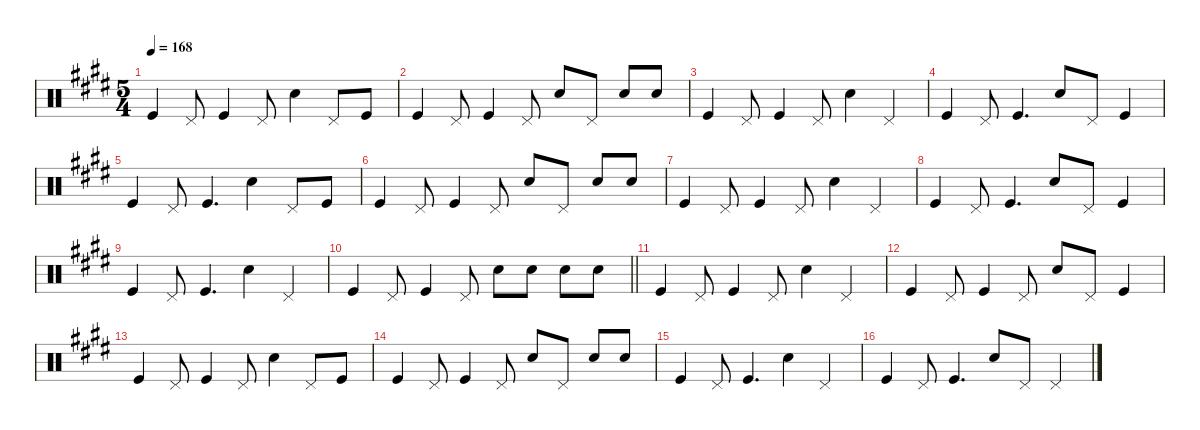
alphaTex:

\defaultSystemsLayout 4
\hideDynamics
\bracketExtendMode nobrackets
\singleTrackTrackNamePolicy hidden
\multiTrackTrackNamePolicy hidden
\firstSystemTrackNameMode fullname
\firstSystemTrackNameOrientation horizontal
\otherSystemsTrackNameOrientation horizontal
\track ("Percussion" "drm.") {instrument percussion}
\staff {score}
\articulation defaults
\ts (5 4)
\tempo 168
\clef neutral
\ks c#minor "Kick (hit)"{acc forcenatural}.4{dy f beam Up} "Pedal Hi-Hat (hit)"{acc forcenatural}.8{beam Up} "Kick (hit)"{acc forcenatural}.4{beam Up} "Pedal Hi-Hat (hit)"{acc forcenatural}.8{beam Up} "Snare (hit) 2"{acc forcenatural}.4{beam Down} "Pedal Hi-Hat (hit)"{acc forcenatural}.8{beam Up} "Kick (hit)"{acc forcenatural}.8{beam Up}
|
"Kick (hit)"{acc forcenatural}.4{beam Up} "Pedal Hi-Hat (hit)"{acc forcenatural}.8{beam Up} "Kick (hit)"{acc forcenatural}.4{beam Up} "Pedal Hi-Hat (hit)"{acc forcenatural}.8{beam Up} "Snare (hit) 2"{acc forcenatural}.8{beam Up} "Pedal Hi-Hat (hit)"{acc forcenatural}.8{beam Up} "Snare (hit) 2"{acc forcenatural}.8{beam Up} "Snare (hit) 2"{acc forcenatural}.8{beam Up} |
"Kick (hit)"{acc forcenatural}.4{beam Up} "Pedal Hi-Hat (hit)"{acc forcenatural}.8{beam Up} "Kick (hit)"{acc forcenatural}.4{beam Up} "Pedal Hi-Hat (hit)"{acc forcenatural}.8{beam Up} "Snare (hit) 2"{acc forcenatural}.4{beam Down} "Pedal Hi-Hat (hit)"{acc forcenatural}.4{beam Up} |
"Kick (hit)"{acc forcenatural}.4{beam Up} "Pedal Hi-Hat (hit)"{acc forcenatural}.8{beam Up} "Kick (hit)"{acc forcenatural}.4{d beam Up} "Snare (hit) 2"{acc forcenatural}.8{beam Up} "Pedal Hi-Hat (hit)"{acc forcenatural}.8{beam Up} "Kick (hit)"{acc forcenatural}.4{beam Up} |
"Kick (hit)"{acc forcenatural}.4{beam Up} "Pedal Hi-Hat (hit)"{acc forcenatural}.8{beam Up} "Kick (hit)"{acc forcenatural}.4{d beam Up} "Snare (hit) 2"{acc forcenatural}.4{beam Down} "Pedal Hi-Hat (hit)"{acc forcenatural}.8{beam Up} "Kick (hit)"{acc forcenatural}.8{beam Up} |
"Kick (hit)"{acc forcenatural}.4{beam Up} "Pedal Hi-Hat (hit)"{acc forcenatural}.8{beam Up} "Kick (hit)"{acc forcenatural}.4{beam Up} "Pedal Hi-Hat (hit)"{acc forcenatural}.8{beam Up} "Snare (hit) 2"{acc forcenatural}.8{beam Up} "Pedal Hi-Hat (hit)"{acc forcenatural}.8{beam Up} "Snare (hit) 2"{acc forcenatural}.8{beam Up} "Snare (hit) 2"{acc forcenatural}.8{beam Up} |
"Kick (hit)"{acc forcenatural}.4{beam Up} "Pedal Hi-Hat (hit)"{acc forcenatural}.8{beam Up} "Kick (hit)"{acc forcenatural}.4{beam Up} "Pedal Hi-Hat (hit)"{acc forcenatural}.8{beam Up} "Snare (hit) 2"{acc forcenatural}.4{beam Down} "Pedal Hi-Hat (hit)"{acc forcenatural}.4{beam Up} |
"Kick (hit)"{acc forcenatural}.4{beam Up} "Pedal Hi-Hat (hit)"{acc forcenatural}.8{beam Up} "Kick (hit)"{acc forcenatural}.4{d beam Up} "Snare (hit) 2"{acc forcenatural}.8{beam Up} "Pedal Hi-Hat (hit)"{acc forcenatural}.8{beam Up} "Kick (hit)"{acc forcenatural}.4{beam Up} |
"Kick (hit)"{acc forcenatural}.4{beam Up} "Pedal Hi-Hat (hit)"{acc forcenatural}.8{beam Up} "Kick (hit)"{acc forcenatural}.4{d beam Up} "Snare (hit) 2"{acc forcenatural}.4{beam Down} "Pedal Hi-Hat (hit)"{acc forcenatural}.4{beam Up} |
\barLineRight lightlight "Kick (hit)"{acc forcenatural}.4{beam Up} "Pedal Hi-Hat (hit)"{acc forcenatural}.8{beam Up} "Kick (hit)"{acc forcenatural}.4{beam Up} "Pedal Hi-Hat (hit)"{acc forcenatural}.8{beam Up} "Snare (hit) 2"{acc forcenatural}.8{beam Down} "Snare (hit) 2"{acc forcenatural}.8{beam Down} "Snare (hit) 2"{acc forcenatural}.8{beam Down} "Snare (hit) 2"{acc forcenatural}.8{beam Down}
|
"Kick (hit)"{acc forcenatural}.4{beam Up} "Pedal Hi-Hat (hit)"{acc forcenatural}.8{beam Up} "Kick (hit)"{acc forcenatural}.4{beam Up} "Pedal Hi-Hat (hit)"{acc forcenatural}.8{beam Up} "Snare (hit) 2"{acc forcenatural}.4{beam Down} "Pedal Hi-Hat (hit)"{acc forcenatural}.4{beam Up} |
"Kick (hit)"{acc forcenatural}.4{beam Up} "Pedal Hi-Hat (hit)"{acc forcenatural}.8{beam Up} "Kick (hit)"{acc forcenatural}.4{beam Up} "Pedal Hi-Hat (hit)"{acc forcenatural}.8{beam Up} "Snare (hit) 2"{acc forcenatural}.8{beam Up} "Pedal Hi-Hat (hit)"{acc forcenatural}.8{beam Up} "Kick (hit)"{acc forcenatural}.4{beam Up} |
"Kick (hit)"{acc forcenatural}.4{beam Up} "Pedal Hi-Hat (hit)"{acc forcenatural}.8{beam Up} "Kick (hit)"{acc forcenatural}.4{beam Up} "Pedal Hi-Hat (hit)"{acc forcenatural}.8{beam Up} "Snare (hit) 2"{acc forcenatural}.4{beam Down} "Pedal Hi-Hat (hit)"{acc forcenatural}.8{beam Up} "Kick (hit)"{acc forcenatural}.8{beam Up} |
"Kick (hit)"{acc forcenatural}.4{beam Up} "Pedal Hi-Hat (hit)"{acc forcenatural}.8{beam Up} "Kick (hit)"{acc forcenatural}.4{beam Up} "Pedal Hi-Hat (hit)"{acc forcenatural}.8{beam Up} "Snare (hit) 2"{acc forcenatural}.8{beam Up} "Pedal Hi-Hat (hit)"{acc forcenatural}.8{beam Up} "Snare (hit) 2"{acc forcenatural}.8{beam Up} "Snare (hit) 2"{acc forcenatural}.8{beam Up} |
"Kick (hit)"{acc forcenatural}.4{beam Up} "Pedal Hi-Hat (hit)"{acc forcenatural}.8{beam Up} "Kick (hit)"{acc forcenatural}.4{d beam Up} "Snare (hit) 2"{acc forcenatural}.4{beam Down} "Pedal Hi-Hat (hit)"{acc forcenatural}.4{beam Up} |
"Kick (hit)"{acc forcenatural}.4{beam Up} "Pedal Hi-Hat (hit)"{acc forcenatural}.8{beam Up} "Kick (hit)"{acc forcenatural}.4{d beam Up} "Snare (hit) 2"{acc forcenatural}.8{beam Up} "Pedal Hi-Hat (hit)"{acc forcenatural}.8{beam Up} "Pedal Hi-Hat (hit)"{acc forcenatural}.4{beam Up}
